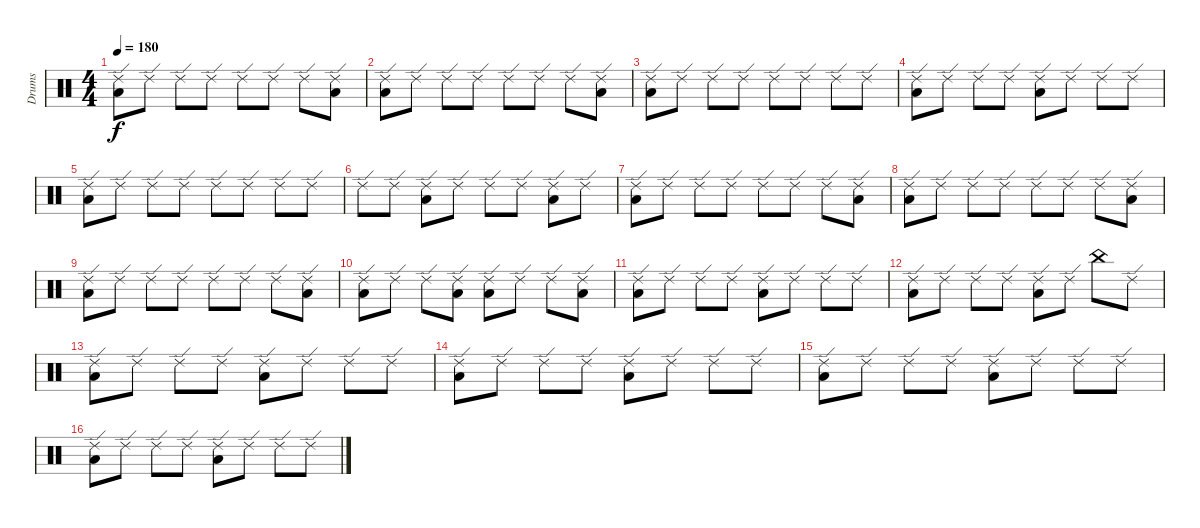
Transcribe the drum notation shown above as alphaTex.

\track ("Drums" "Drums") {instrument percussion}
\staff {score}
\articulation defaults
\ts (4 4)
\tempo 180
\clef neutral
\ks c
("Ride (edge) 2" "Low Tom (hit)").8{dy f} "Ride (edge) 2".8 "Ride (edge) 2".8 "Ride (edge) 2".8 "Ride (edge) 2".8 "Ride (edge) 2".8 "Ride (edge) 2".8 ("Ride (edge) 2" "Low Tom (hit)").8 |
("Ride (edge) 2" "Low Tom (hit)").8 "Ride (edge) 2".8 "Ride (edge) 2".8 "Ride (edge) 2".8 "Ride (edge) 2".8 "Ride (edge) 2".8 "Ride (edge) 2".8 ("Ride (edge) 2" "Low Tom (hit)").8 |
("Low Tom (hit)" "Ride (edge) 2").8 "Ride (edge) 2".8 "Ride (edge) 2".8 "Ride (edge) 2".8 "Ride (edge) 2".8 "Ride (edge) 2".8 "Ride (edge) 2".8 "Ride (edge) 2".8 |
("Low Tom (hit)" "Ride (edge) 2").8 "Ride (edge) 2".8 "Ride (edge) 2".8 "Ride (edge) 2".8 ("Low Tom (hit)" "Ride (edge) 2").8 "Ride (edge) 2".8 "Ride (edge) 2".8 "Ride (edge) 2".8 |
("Low Tom (hit)" "Ride (edge) 2").8 "Ride (edge) 2".8 "Ride (edge) 2".8 "Ride (edge) 2".8 "Ride (edge) 2".8 "Ride (edge) 2".8 "Ride (edge) 2".8 "Ride (edge) 2".8 |
"Ride (edge) 2".8 "Ride (edge) 2".8 ("Low Tom (hit)" "Ride (edge) 2").8 "Ride (edge) 2".8 "Ride (edge) 2".8 "Ride (edge) 2".8 ("Low Tom (hit)" "Ride (edge) 2").8 "Ride (edge) 2".8 |
("Low Tom (hit)" "Ride (edge) 2").8 "Ride (edge) 2".8 "Ride (edge) 2".8 "Ride (edge) 2".8 "Ride (edge) 2".8 "Ride (edge) 2".8 "Ride (edge) 2".8 ("Low Tom (hit)" "Ride (edge) 2").8 |
("Low Tom (hit)" "Ride (edge) 2").8 "Ride (edge) 2".8 "Ride (edge) 2".8 "Ride (edge) 2".8 "Ride (edge) 2".8 "Ride (edge) 2".8 "Ride (edge) 2".8 ("Low Tom (hit)" "Ride (edge) 2").8 |
("Low Tom (hit)" "Ride (edge) 2").8 "Ride (edge) 2".8 "Ride (edge) 2".8 "Ride (edge) 2".8 "Ride (edge) 2".8 "Ride (edge) 2".8 "Ride (edge) 2".8 ("Low Tom (hit)" "Ride (edge) 2").8 |
("Ride (edge) 2" "Low Tom (hit)").8 "Ride (edge) 2".8 "Ride (edge) 2".8 ("Low Tom (hit)" "Ride (edge) 2").8 ("Ride (edge) 2" "Low Tom (hit)").8 "Ride (edge) 2".8 "Ride (edge) 2".8 ("Ride (edge) 2" "Low Tom (hit)").8 |
("Ride (edge) 2" "Low Tom (hit)").8 "Ride (edge) 2".8 "Ride (edge) 2".8 "Ride (edge) 2".8 ("Low Tom (hit)" "Ride (edge) 2").8 "Ride (edge) 2".8 "Ride (edge) 2".8 "Ride (edge) 2".8 |
("Low Tom (hit)" "Ride (edge) 2").8 "Ride (edge) 2".8 "Ride (edge) 2".8 "Ride (edge) 2".8 ("Low Tom (hit)" "Ride (edge) 2").8 "Ride (edge) 2".8 "China (hit)".8 "Ride (edge) 2".8 |
("Low Tom (hit)" "Ride (edge) 2").8 "Ride (edge) 2".8 "Ride (edge) 2".8 "Ride (edge) 2".8 ("Low Tom (hit)" "Ride (edge) 2").8 "Ride (edge) 2".8 "Ride (edge) 2".8 "Ride (edge) 2".8 |
("Low Tom (hit)" "Ride (edge) 2").8 "Ride (edge) 2".8 "Ride (edge) 2".8 "Ride (edge) 2".8 ("Low Tom (hit)" "Ride (edge) 2").8 "Ride (edge) 2".8 "Ride (edge) 2".8 "Ride (edge) 2".8 |
("Ride (edge) 2" "Low Tom (hit)").8 "Ride (edge) 2".8 "Ride (edge) 2".8 "Ride (edge) 2".8 ("Low Tom (hit)" "Ride (edge) 2").8 "Ride (edge) 2".8 "Ride (edge) 2".8 "Ride (edge) 2".8 |
("Low Tom (hit)" "Ride (edge) 2").8 "Ride (edge) 2".8 "Ride (edge) 2".8 "Ride (edge) 2".8 ("Low Tom (hit)" "Ride (edge) 2").8 "Ride (edge) 2".8 "Ride (edge) 2".8 "Ride (edge) 2".8
